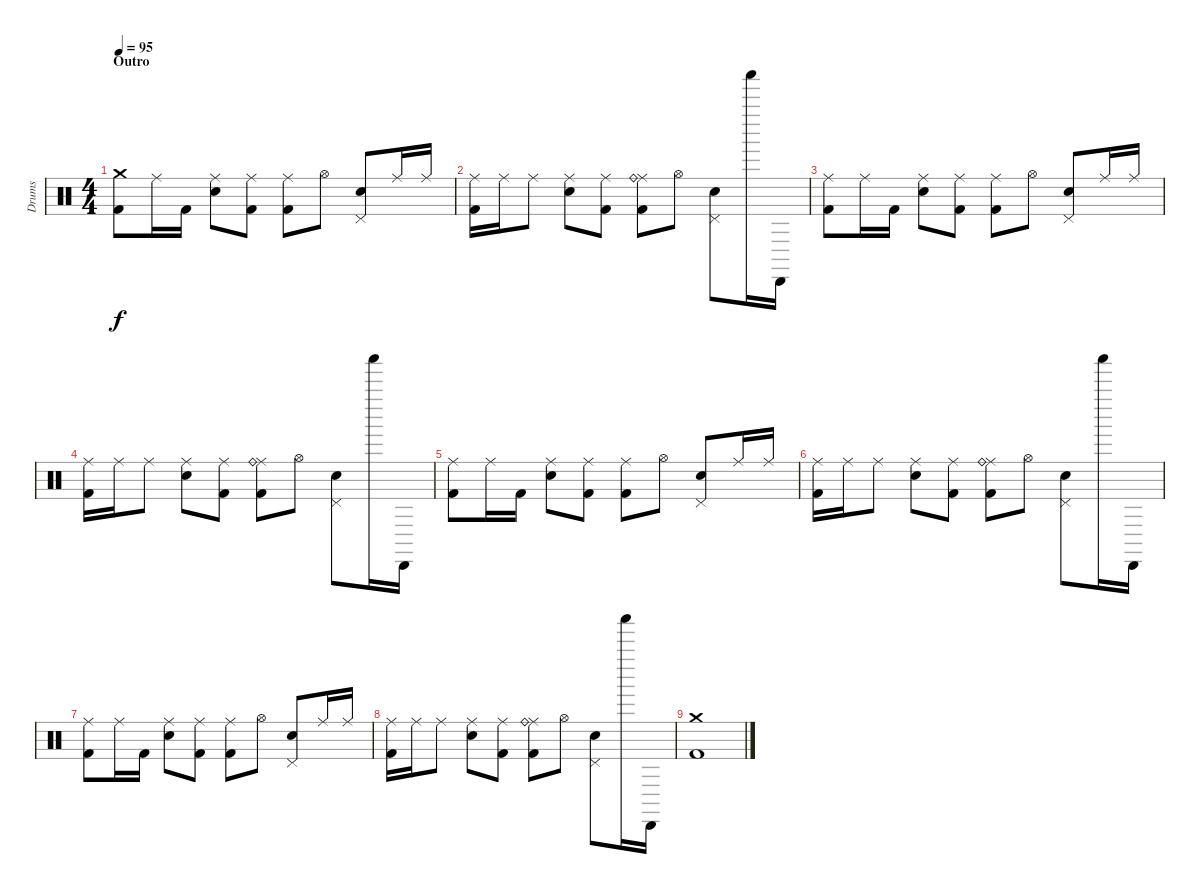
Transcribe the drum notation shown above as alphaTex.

\track ("Drums" "Drums") {instrument percussion}
\staff {score}
\articulation defaults
\ts (4 4)
\section ("" "Outro")
\tempo 95
\clef neutral
\ks c
("Crash medium (hit)" "Kick (hit) 2").8{dy f} "Ride (middle)".16 "Kick (hit) 2".16 ("Ride (middle)" "Electric Snare (hit)").8 ("Ride (middle)" "Kick (hit) 2").8 ("Ride (middle)" "Kick (hit) 2").8 "Hi-Hat (open)".8 ("Pedal Hi-Hat (hit)" "Electric Snare (hit)").8 "Ride (middle)".16 "Ride (middle)".16 |
("Ride (middle)" "Kick (hit) 2").16 "Ride (middle)".16 "Ride (middle)".8 ("Ride (middle)" "Electric Snare (hit)").8 ("Ride (middle)" "Kick (hit) 2").8 ("Ride (middle)" "Ride (bell)" "Kick (hit) 2").8 "Hi-Hat (open)".8 ("Pedal Hi-Hat (hit)" "Electric Snare (hit)").8 "Shaker (hit)".16 "Cabasa (hit)".16 |
("Ride (middle)" "Kick (hit) 2").8 "Ride (middle)".16 "Kick (hit) 2".16 ("Ride (middle)" "Electric Snare (hit)").8 ("Ride (middle)" "Kick (hit) 2").8 ("Ride (middle)" "Kick (hit) 2").8 "Hi-Hat (open)".8 ("Pedal Hi-Hat (hit)" "Electric Snare (hit)").8 "Ride (middle)".16 "Ride (middle)".16 |
("Ride (middle)" "Kick (hit) 2").16 "Ride (middle)".16 "Ride (middle)".8 ("Ride (middle)" "Electric Snare (hit)").8 ("Ride (middle)" "Kick (hit) 2").8 ("Ride (middle)" "Ride (bell)" "Kick (hit) 2").8 "Hi-Hat (open)".8 ("Pedal Hi-Hat (hit)" "Electric Snare (hit)").8 "Shaker (hit)".16 "Cabasa (hit)".16 |
("Ride (middle)" "Kick (hit) 2").8 "Ride (middle)".16 "Kick (hit) 2".16 ("Ride (middle)" "Electric Snare (hit)").8 ("Ride (middle)" "Kick (hit) 2").8 ("Ride (middle)" "Kick (hit) 2").8 "Hi-Hat (open)".8 ("Pedal Hi-Hat (hit)" "Electric Snare (hit)").8 "Ride (middle)".16 "Ride (middle)".16 |
("Ride (middle)" "Kick (hit) 2").16 "Ride (middle)".16 "Ride (middle)".8 ("Ride (middle)" "Electric Snare (hit)").8 ("Ride (middle)" "Kick (hit) 2").8 ("Ride (middle)" "Ride (bell)" "Kick (hit) 2").8 "Hi-Hat (open)".8 ("Pedal Hi-Hat (hit)" "Electric Snare (hit)").8 "Shaker (hit)".16 "Cabasa (hit)".16 |
("Ride (middle)" "Kick (hit) 2").8 "Ride (middle)".16 "Kick (hit) 2".16 ("Ride (middle)" "Electric Snare (hit)").8 ("Ride (middle)" "Kick (hit) 2").8 ("Ride (middle)" "Kick (hit) 2").8 "Hi-Hat (open)".8 ("Pedal Hi-Hat (hit)" "Electric Snare (hit)").8 "Ride (middle)".16 "Ride (middle)".16 |
("Ride (middle)" "Kick (hit) 2").16 "Ride (middle)".16 "Ride (middle)".8 ("Ride (middle)" "Electric Snare (hit)").8 ("Ride (middle)" "Kick (hit) 2").8 ("Ride (middle)" "Ride (bell)" "Kick (hit) 2").8 "Hi-Hat (open)".8 ("Pedal Hi-Hat (hit)" "Electric Snare (hit)").8 "Shaker (hit)".16 "Cabasa (hit)".16 |
("Crash medium (hit)" "Kick (hit) 2").1
